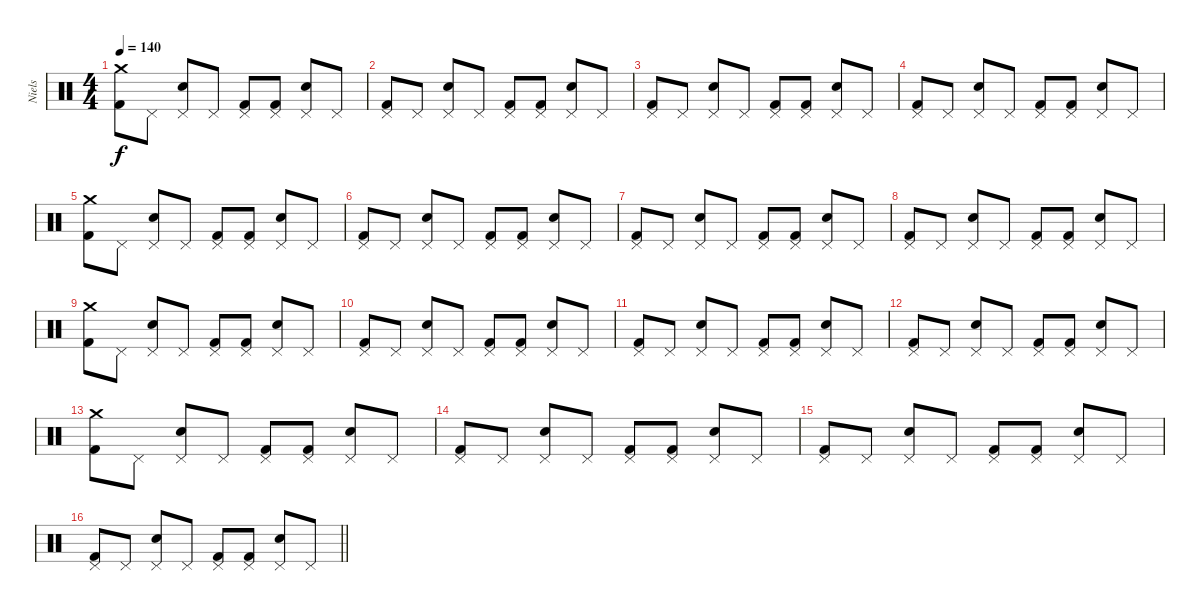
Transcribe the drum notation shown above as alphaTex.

\track ("Niels" "Niels") {instrument percussion}
\staff {score}
\articulation defaults
\ts (4 4)
\tempo 140
\clef neutral
\ks c
("Crash medium (hit)" "Kick (hit) 2").8{dy f} "Pedal Hi-Hat (hit)".8 ("Pedal Hi-Hat (hit)" "Snare (hit) 2").8 "Pedal Hi-Hat (hit)".8 ("Pedal Hi-Hat (hit)" "Kick (hit) 2").8 ("Pedal Hi-Hat (hit)" "Kick (hit) 2").8 ("Pedal Hi-Hat (hit)" "Snare (hit) 2").8 "Pedal Hi-Hat (hit)".8 |
("Pedal Hi-Hat (hit)" "Kick (hit) 2").8 "Pedal Hi-Hat (hit)".8 ("Pedal Hi-Hat (hit)" "Snare (hit) 2").8 "Pedal Hi-Hat (hit)".8 ("Pedal Hi-Hat (hit)" "Kick (hit) 2").8 ("Pedal Hi-Hat (hit)" "Kick (hit) 2").8 ("Pedal Hi-Hat (hit)" "Snare (hit) 2").8 "Pedal Hi-Hat (hit)".8 |
("Pedal Hi-Hat (hit)" "Kick (hit) 2").8 "Pedal Hi-Hat (hit)".8 ("Pedal Hi-Hat (hit)" "Snare (hit) 2").8 "Pedal Hi-Hat (hit)".8 ("Pedal Hi-Hat (hit)" "Kick (hit) 2").8 ("Pedal Hi-Hat (hit)" "Kick (hit) 2").8 ("Pedal Hi-Hat (hit)" "Snare (hit) 2").8 "Pedal Hi-Hat (hit)".8 |
("Pedal Hi-Hat (hit)" "Kick (hit) 2").8 "Pedal Hi-Hat (hit)".8 ("Pedal Hi-Hat (hit)" "Snare (hit) 2").8 "Pedal Hi-Hat (hit)".8 ("Pedal Hi-Hat (hit)" "Kick (hit) 2").8 ("Pedal Hi-Hat (hit)" "Kick (hit) 2").8 ("Pedal Hi-Hat (hit)" "Snare (hit) 2").8 "Pedal Hi-Hat (hit)".8 |
("Crash medium (hit)" "Kick (hit) 2").8 "Pedal Hi-Hat (hit)".8 ("Pedal Hi-Hat (hit)" "Snare (hit) 2").8 "Pedal Hi-Hat (hit)".8 ("Pedal Hi-Hat (hit)" "Kick (hit) 2").8 ("Pedal Hi-Hat (hit)" "Kick (hit) 2").8 ("Pedal Hi-Hat (hit)" "Snare (hit) 2").8 "Pedal Hi-Hat (hit)".8 |
("Pedal Hi-Hat (hit)" "Kick (hit) 2").8 "Pedal Hi-Hat (hit)".8 ("Pedal Hi-Hat (hit)" "Snare (hit) 2").8 "Pedal Hi-Hat (hit)".8 ("Pedal Hi-Hat (hit)" "Kick (hit) 2").8 ("Pedal Hi-Hat (hit)" "Kick (hit) 2").8 ("Pedal Hi-Hat (hit)" "Snare (hit) 2").8 "Pedal Hi-Hat (hit)".8 |
("Pedal Hi-Hat (hit)" "Kick (hit) 2").8 "Pedal Hi-Hat (hit)".8 ("Pedal Hi-Hat (hit)" "Snare (hit) 2").8 "Pedal Hi-Hat (hit)".8 ("Pedal Hi-Hat (hit)" "Kick (hit) 2").8 ("Pedal Hi-Hat (hit)" "Kick (hit) 2").8 ("Pedal Hi-Hat (hit)" "Snare (hit) 2").8 "Pedal Hi-Hat (hit)".8 |
("Pedal Hi-Hat (hit)" "Kick (hit) 2").8 "Pedal Hi-Hat (hit)".8 ("Pedal Hi-Hat (hit)" "Snare (hit) 2").8 "Pedal Hi-Hat (hit)".8 ("Pedal Hi-Hat (hit)" "Kick (hit) 2").8 ("Pedal Hi-Hat (hit)" "Kick (hit) 2").8 ("Pedal Hi-Hat (hit)" "Snare (hit) 2").8 "Pedal Hi-Hat (hit)".8 |
("Crash medium (hit)" "Kick (hit) 2").8 "Pedal Hi-Hat (hit)".8 ("Pedal Hi-Hat (hit)" "Snare (hit) 2").8 "Pedal Hi-Hat (hit)".8 ("Pedal Hi-Hat (hit)" "Kick (hit) 2").8 ("Pedal Hi-Hat (hit)" "Kick (hit) 2").8 ("Pedal Hi-Hat (hit)" "Snare (hit) 2").8 "Pedal Hi-Hat (hit)".8 |
("Pedal Hi-Hat (hit)" "Kick (hit) 2").8 "Pedal Hi-Hat (hit)".8 ("Pedal Hi-Hat (hit)" "Snare (hit) 2").8 "Pedal Hi-Hat (hit)".8 ("Pedal Hi-Hat (hit)" "Kick (hit) 2").8 ("Pedal Hi-Hat (hit)" "Kick (hit) 2").8 ("Pedal Hi-Hat (hit)" "Snare (hit) 2").8 "Pedal Hi-Hat (hit)".8 |
("Pedal Hi-Hat (hit)" "Kick (hit) 2").8 "Pedal Hi-Hat (hit)".8 ("Pedal Hi-Hat (hit)" "Snare (hit) 2").8 "Pedal Hi-Hat (hit)".8 ("Pedal Hi-Hat (hit)" "Kick (hit) 2").8 ("Pedal Hi-Hat (hit)" "Kick (hit) 2").8 ("Pedal Hi-Hat (hit)" "Snare (hit) 2").8 "Pedal Hi-Hat (hit)".8 |
("Pedal Hi-Hat (hit)" "Kick (hit) 2").8 "Pedal Hi-Hat (hit)".8 ("Pedal Hi-Hat (hit)" "Snare (hit) 2").8 "Pedal Hi-Hat (hit)".8 ("Pedal Hi-Hat (hit)" "Kick (hit) 2").8 ("Pedal Hi-Hat (hit)" "Kick (hit) 2").8 ("Pedal Hi-Hat (hit)" "Snare (hit) 2").8 "Pedal Hi-Hat (hit)".8 |
("Crash medium (hit)" "Kick (hit) 2").8 "Pedal Hi-Hat (hit)".8 ("Pedal Hi-Hat (hit)" "Snare (hit) 2").8 "Pedal Hi-Hat (hit)".8 ("Pedal Hi-Hat (hit)" "Kick (hit) 2").8 ("Pedal Hi-Hat (hit)" "Kick (hit) 2").8 ("Pedal Hi-Hat (hit)" "Snare (hit) 2").8 "Pedal Hi-Hat (hit)".8 |
("Pedal Hi-Hat (hit)" "Kick (hit) 2").8 "Pedal Hi-Hat (hit)".8 ("Pedal Hi-Hat (hit)" "Snare (hit) 2").8 "Pedal Hi-Hat (hit)".8 ("Pedal Hi-Hat (hit)" "Kick (hit) 2").8 ("Pedal Hi-Hat (hit)" "Kick (hit) 2").8 ("Pedal Hi-Hat (hit)" "Snare (hit) 2").8 "Pedal Hi-Hat (hit)".8 |
("Pedal Hi-Hat (hit)" "Kick (hit) 2").8 "Pedal Hi-Hat (hit)".8 ("Pedal Hi-Hat (hit)" "Snare (hit) 2").8 "Pedal Hi-Hat (hit)".8 ("Pedal Hi-Hat (hit)" "Kick (hit) 2").8 ("Pedal Hi-Hat (hit)" "Kick (hit) 2").8 ("Pedal Hi-Hat (hit)" "Snare (hit) 2").8 "Pedal Hi-Hat (hit)".8 |
\barLineRight lightlight
("Pedal Hi-Hat (hit)" "Kick (hit) 2").8 "Pedal Hi-Hat (hit)".8 ("Pedal Hi-Hat (hit)" "Snare (hit) 2").8 "Pedal Hi-Hat (hit)".8 ("Pedal Hi-Hat (hit)" "Kick (hit) 2").8 ("Pedal Hi-Hat (hit)" "Kick (hit) 2").8 ("Pedal Hi-Hat (hit)" "Snare (hit) 2").8 "Pedal Hi-Hat (hit)".8
